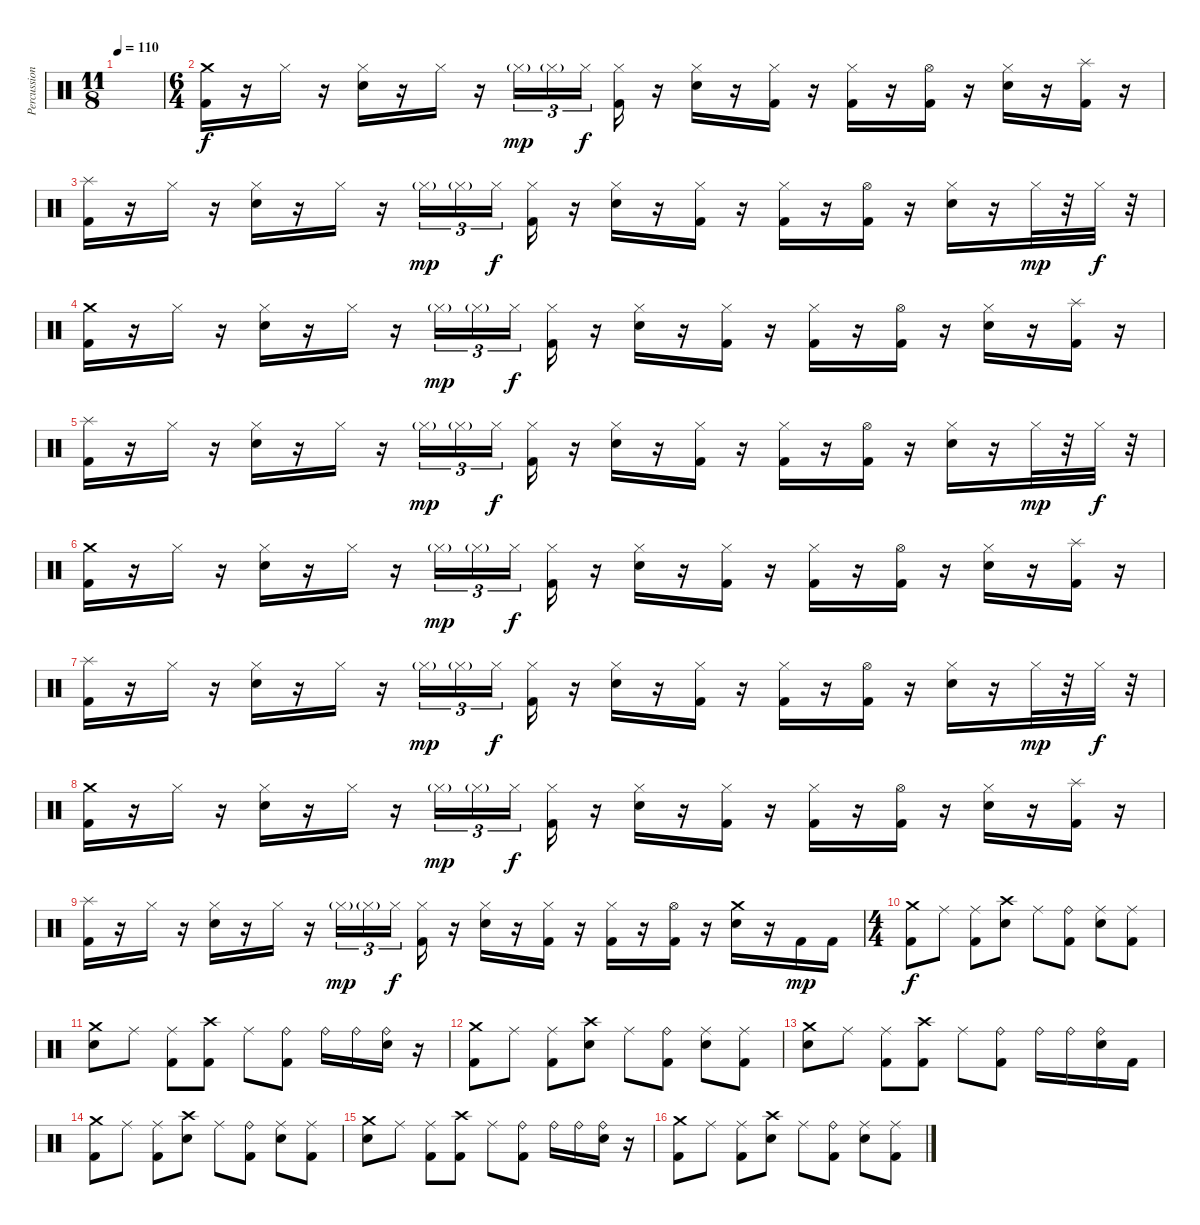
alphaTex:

\track ("Percussion" "Percussion") {instrument percussion}
\staff {score}
\articulation defaults
\ts (11 8)
\tempo 110
\clef neutral
\ks c
|
\ts (6 4)
("Crash medium (hit)" "Kick (hit) 2").16 r.16 "Hi-Hat (closed)".16 r.16 ("Hi-Hat (closed)" "Electric Snare (hit)").16 r.16 "Hi-Hat (closed)".16 r.16 "Hi-Hat (closed)"{g}.16{tu (3 2) dy mp} "Hi-Hat (closed)"{g}.16{tu (3 2)} "Hi-Hat (closed)".16{tu (3 2) dy f beam splitsecondary} ("Hi-Hat (closed)" "Kick (hit) 2").16 r.16 ("Hi-Hat (closed)" "Electric Snare (hit)").16 r.16 ("Hi-Hat (closed)" "Kick (hit) 2").16 r.16 ("Hi-Hat (closed)" "Kick (hit) 2").16 r.16 ("Hi-Hat (open)" "Kick (hit) 2").16 r.16 ("Hi-Hat (closed)" "Electric Snare (hit)").16 r.16 ("Splash (hit)" "Kick (hit) 2").16 r.16 |
("Splash (hit)" "Kick (hit) 2").16 r.16 "Hi-Hat (closed)".16 r.16 ("Hi-Hat (closed)" "Electric Snare (hit)").16 r.16 "Hi-Hat (closed)".16 r.16 "Hi-Hat (closed)"{g}.16{tu (3 2) dy mp} "Hi-Hat (closed)"{g}.16{tu (3 2)} "Hi-Hat (closed)".16{tu (3 2) dy f beam splitsecondary} ("Hi-Hat (closed)" "Kick (hit) 2").16 r.16 ("Hi-Hat (closed)" "Electric Snare (hit)").16 r.16 ("Hi-Hat (closed)" "Kick (hit) 2").16 r.16 ("Hi-Hat (closed)" "Kick (hit) 2").16 r.16 ("Hi-Hat (open)" "Kick (hit) 2").16 r.16 ("Hi-Hat (closed)" "Electric Snare (hit)").16 r.16 "Hi-Hat (closed)".32{dy mp} r.32 "Hi-Hat (closed)".32{dy f} r.32 |
("Crash medium (hit)" "Kick (hit) 2").16 r.16 "Hi-Hat (closed)".16 r.16 ("Hi-Hat (closed)" "Electric Snare (hit)").16 r.16 "Hi-Hat (closed)".16 r.16 "Hi-Hat (closed)"{g}.16{tu (3 2) dy mp} "Hi-Hat (closed)"{g}.16{tu (3 2)} "Hi-Hat (closed)".16{tu (3 2) dy f beam splitsecondary} ("Hi-Hat (closed)" "Kick (hit) 2").16 r.16 ("Hi-Hat (closed)" "Electric Snare (hit)").16 r.16 ("Hi-Hat (closed)" "Kick (hit) 2").16 r.16 ("Hi-Hat (closed)" "Kick (hit) 2").16 r.16 ("Hi-Hat (open)" "Kick (hit) 2").16 r.16 ("Hi-Hat (closed)" "Electric Snare (hit)").16 r.16 ("Splash (hit)" "Kick (hit) 2").16 r.16 |
("Splash (hit)" "Kick (hit) 2").16 r.16 "Hi-Hat (closed)".16 r.16 ("Hi-Hat (closed)" "Electric Snare (hit)").16 r.16 "Hi-Hat (closed)".16 r.16 "Hi-Hat (closed)"{g}.16{tu (3 2) dy mp} "Hi-Hat (closed)"{g}.16{tu (3 2)} "Hi-Hat (closed)".16{tu (3 2) dy f beam splitsecondary} ("Hi-Hat (closed)" "Kick (hit) 2").16 r.16 ("Hi-Hat (closed)" "Electric Snare (hit)").16 r.16 ("Hi-Hat (closed)" "Kick (hit) 2").16 r.16 ("Hi-Hat (closed)" "Kick (hit) 2").16 r.16 ("Hi-Hat (open)" "Kick (hit) 2").16 r.16 ("Hi-Hat (closed)" "Electric Snare (hit)").16 r.16 "Hi-Hat (closed)".32{dy mp} r.32 "Hi-Hat (closed)".32{dy f} r.32 |
("Crash medium (hit)" "Kick (hit) 2").16 r.16 "Hi-Hat (closed)".16 r.16 ("Hi-Hat (closed)" "Electric Snare (hit)").16 r.16 "Hi-Hat (closed)".16 r.16 "Hi-Hat (closed)"{g}.16{tu (3 2) dy mp} "Hi-Hat (closed)"{g}.16{tu (3 2)} "Hi-Hat (closed)".16{tu (3 2) dy f beam splitsecondary} ("Hi-Hat (closed)" "Kick (hit) 2").16 r.16 ("Hi-Hat (closed)" "Electric Snare (hit)").16 r.16 ("Hi-Hat (closed)" "Kick (hit) 2").16 r.16 ("Hi-Hat (closed)" "Kick (hit) 2").16 r.16 ("Hi-Hat (open)" "Kick (hit) 2").16 r.16 ("Hi-Hat (closed)" "Electric Snare (hit)").16 r.16 ("Splash (hit)" "Kick (hit) 2").16 r.16 |
("Splash (hit)" "Kick (hit) 2").16 r.16 "Hi-Hat (closed)".16 r.16 ("Hi-Hat (closed)" "Electric Snare (hit)").16 r.16 "Hi-Hat (closed)".16 r.16 "Hi-Hat (closed)"{g}.16{tu (3 2) dy mp} "Hi-Hat (closed)"{g}.16{tu (3 2)} "Hi-Hat (closed)".16{tu (3 2) dy f beam splitsecondary} ("Hi-Hat (closed)" "Kick (hit) 2").16 r.16 ("Hi-Hat (closed)" "Electric Snare (hit)").16 r.16 ("Hi-Hat (closed)" "Kick (hit) 2").16 r.16 ("Hi-Hat (closed)" "Kick (hit) 2").16 r.16 ("Hi-Hat (open)" "Kick (hit) 2").16 r.16 ("Hi-Hat (closed)" "Electric Snare (hit)").16 r.16 "Hi-Hat (closed)".32{dy mp} r.32 "Hi-Hat (closed)".32{dy f} r.32 |
("Crash medium (hit)" "Kick (hit) 2").16 r.16 "Hi-Hat (closed)".16 r.16 ("Hi-Hat (closed)" "Electric Snare (hit)").16 r.16 "Hi-Hat (closed)".16 r.16 "Hi-Hat (closed)"{g}.16{tu (3 2) dy mp} "Hi-Hat (closed)"{g}.16{tu (3 2)} "Hi-Hat (closed)".16{tu (3 2) dy f beam splitsecondary} ("Hi-Hat (closed)" "Kick (hit) 2").16 r.16 ("Hi-Hat (closed)" "Electric Snare (hit)").16 r.16 ("Hi-Hat (closed)" "Kick (hit) 2").16 r.16 ("Hi-Hat (closed)" "Kick (hit) 2").16 r.16 ("Hi-Hat (open)" "Kick (hit) 2").16 r.16 ("Hi-Hat (closed)" "Electric Snare (hit)").16 r.16 ("Splash (hit)" "Kick (hit) 2").16 r.16 |
("Splash (hit)" "Kick (hit) 2").16 r.16 "Hi-Hat (closed)".16 r.16 ("Hi-Hat (closed)" "Electric Snare (hit)").16 r.16 "Hi-Hat (closed)".16 r.16 "Hi-Hat (closed)"{g}.16{tu (3 2) dy mp} "Hi-Hat (closed)"{g}.16{tu (3 2)} "Hi-Hat (closed)".16{tu (3 2) dy f beam splitsecondary} ("Hi-Hat (closed)" "Kick (hit) 2").16 r.16 ("Hi-Hat (closed)" "Electric Snare (hit)").16 r.16 ("Hi-Hat (closed)" "Kick (hit) 2").16 r.16 ("Hi-Hat (closed)" "Kick (hit) 2").16 r.16 ("Hi-Hat (open)" "Kick (hit) 2").16 r.16 ("Crash medium (hit)" "Electric Snare (hit)").16 r.16 "Kick (hit) 2".16{dy mp} "Kick (hit) 2".16 |
\ts (4 4)
("Crash medium (hit)" "Kick (hit) 2").8{dy f} "Ride (middle)".8 ("Ride (middle)" "Kick (hit) 2").8 ("Crash high (hit)" "Electric Snare (hit)").8 "Ride (middle)".8 ("Ride (bell)" "Kick (hit) 2").8 ("Ride (middle)" "Electric Snare (hit)").8 ("Ride (middle)" "Kick (hit) 2").8 |
("Crash medium (hit)" "Electric Snare (hit)").8 "Ride (middle)".8 ("Ride (middle)" "Kick (hit) 2").8 ("Crash high (hit)" "Kick (hit) 2").8 "Ride (middle)".8 ("Ride (bell)" "Kick (hit) 2").8 "Ride (bell)".16 "Ride (bell)".16 ("Ride (bell)" "Electric Snare (hit)").16 r.16 |
("Crash medium (hit)" "Kick (hit) 2").8 "Ride (middle)".8 ("Ride (middle)" "Kick (hit) 2").8 ("Crash high (hit)" "Electric Snare (hit)").8 "Ride (middle)".8 ("Ride (bell)" "Kick (hit) 2").8 ("Ride (middle)" "Electric Snare (hit)").8 ("Ride (middle)" "Kick (hit) 2").8 |
("Crash medium (hit)" "Electric Snare (hit)").8 "Ride (middle)".8 ("Ride (middle)" "Kick (hit) 2").8 ("Crash high (hit)" "Kick (hit) 2").8 "Ride (middle)".8 ("Ride (bell)" "Kick (hit) 2").8 "Ride (bell)".16 "Ride (bell)".16 ("Ride (bell)" "Electric Snare (hit)").16 "Kick (hit) 2".16 |
("Crash medium (hit)" "Kick (hit) 2").8 "Ride (middle)".8 ("Ride (middle)" "Kick (hit) 2").8 ("Crash high (hit)" "Electric Snare (hit)").8 "Ride (middle)".8 ("Ride (bell)" "Kick (hit) 2").8 ("Ride (middle)" "Electric Snare (hit)").8 ("Ride (middle)" "Kick (hit) 2").8 |
("Crash medium (hit)" "Electric Snare (hit)").8 "Ride (middle)".8 ("Ride (middle)" "Kick (hit) 2").8 ("Crash high (hit)" "Kick (hit) 2").8 "Ride (middle)".8 ("Ride (bell)" "Kick (hit) 2").8 "Ride (bell)".16 "Ride (bell)".16 ("Ride (bell)" "Electric Snare (hit)").16 r.16 |
("Crash medium (hit)" "Kick (hit) 2").8 "Ride (middle)".8 ("Ride (middle)" "Kick (hit) 2").8 ("Crash high (hit)" "Electric Snare (hit)").8 "Ride (middle)".8 ("Ride (bell)" "Kick (hit) 2").8 ("Ride (middle)" "Electric Snare (hit)").8 ("Ride (middle)" "Kick (hit) 2").8
